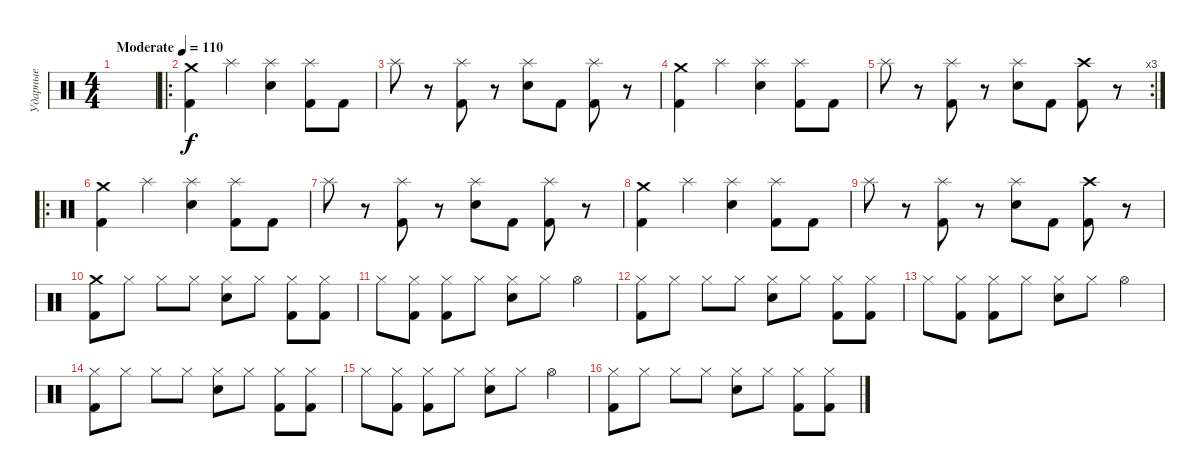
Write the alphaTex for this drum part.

\track ("Ударные" "Ударные") {instrument percussion}
\staff {score}
\articulation defaults
\ts (4 4)
\tempo (110 "Moderate")
\clef neutral
\ks c
|
\ro
("Crash medium (hit)" "Kick (hit) 2").4 "Splash (hit)".4 ("Splash (hit)" "Electric Snare (hit)").4 ("Splash (hit)" "Kick (hit) 2").8 "Kick (hit) 2".8 |
"Splash (hit)".8 r.8 ("Splash (hit)" "Kick (hit) 2").8 r.8 ("Splash (hit)" "Electric Snare (hit)").8 "Kick (hit) 2".8 ("Splash (hit)" "Kick (hit) 2").8 r.8 |
("Crash medium (hit)" "Kick (hit) 2").4 "Splash (hit)".4 ("Splash (hit)" "Electric Snare (hit)").4 ("Splash (hit)" "Kick (hit) 2").8 "Kick (hit) 2".8 |
\rc 3 "Splash (hit)".8
r.8 ("Splash (hit)" "Kick (hit) 2").8 r.8 ("Splash (hit)" "Electric Snare (hit)").8 "Kick (hit) 2".8 ("Crash high (hit)" "Kick (hit) 2").8 r.8 |
\ro
("Crash medium (hit)" "Kick (hit) 2").4 "Splash (hit)".4 ("Splash (hit)" "Electric Snare (hit)").4 ("Splash (hit)" "Kick (hit) 2").8 "Kick (hit) 2".8 |
"Splash (hit)".8 r.8 ("Splash (hit)" "Kick (hit) 2").8 r.8 ("Splash (hit)" "Electric Snare (hit)").8 "Kick (hit) 2".8 ("Splash (hit)" "Kick (hit) 2").8 r.8 |
("Crash medium (hit)" "Kick (hit) 2").4 "Splash (hit)".4 ("Splash (hit)" "Electric Snare (hit)").4 ("Splash (hit)" "Kick (hit) 2").8 "Kick (hit) 2".8 |
"Splash (hit)".8 r.8 ("Splash (hit)" "Kick (hit) 2").8 r.8 ("Splash (hit)" "Electric Snare (hit)").8 "Kick (hit) 2".8 ("Crash high (hit)" "Kick (hit) 2").8 r.8 |
("Crash medium (hit)" "Kick (hit) 2").8 "Hi-Hat (closed)".8 "Hi-Hat (closed)".8 "Hi-Hat (closed)".8 ("Hi-Hat (closed)" "Electric Snare (hit)").8 "Hi-Hat (closed)".8 ("Hi-Hat (closed)" "Kick (hit) 2").8 ("Hi-Hat (closed)" "Kick (hit) 2").8 |
"Hi-Hat (closed)".8 ("Hi-Hat (closed)" "Kick (hit) 2").8 ("Hi-Hat (closed)" "Kick (hit) 2").8 "Hi-Hat (closed)".8 ("Hi-Hat (closed)" "Electric Snare (hit)").8 "Hi-Hat (closed)".8 "Hi-Hat (open)".4 |
("Hi-Hat (closed)" "Kick (hit) 2").8 "Hi-Hat (closed)".8 "Hi-Hat (closed)".8 "Hi-Hat (closed)".8 ("Hi-Hat (closed)" "Electric Snare (hit)").8 "Hi-Hat (closed)".8 ("Hi-Hat (closed)" "Kick (hit) 2").8 ("Hi-Hat (closed)" "Kick (hit) 2").8 |
"Hi-Hat (closed)".8 ("Hi-Hat (closed)" "Kick (hit) 2").8 ("Hi-Hat (closed)" "Kick (hit) 2").8 "Hi-Hat (closed)".8 ("Hi-Hat (closed)" "Electric Snare (hit)").8 "Hi-Hat (closed)".8 "Hi-Hat (open)".4 |
("Hi-Hat (closed)" "Kick (hit) 2").8 "Hi-Hat (closed)".8 "Hi-Hat (closed)".8 "Hi-Hat (closed)".8 ("Hi-Hat (closed)" "Electric Snare (hit)").8 "Hi-Hat (closed)".8 ("Hi-Hat (closed)" "Kick (hit) 2").8 ("Hi-Hat (closed)" "Kick (hit) 2").8 |
"Hi-Hat (closed)".8 ("Hi-Hat (closed)" "Kick (hit) 2").8 ("Hi-Hat (closed)" "Kick (hit) 2").8 "Hi-Hat (closed)".8 ("Hi-Hat (closed)" "Electric Snare (hit)").8 "Hi-Hat (closed)".8 "Hi-Hat (open)".4 |
("Hi-Hat (closed)" "Kick (hit) 2").8 "Hi-Hat (closed)".8 "Hi-Hat (closed)".8 "Hi-Hat (closed)".8 ("Hi-Hat (closed)" "Electric Snare (hit)").8 "Hi-Hat (closed)".8 ("Hi-Hat (closed)" "Kick (hit) 2").8 ("Hi-Hat (closed)" "Kick (hit) 2").8
